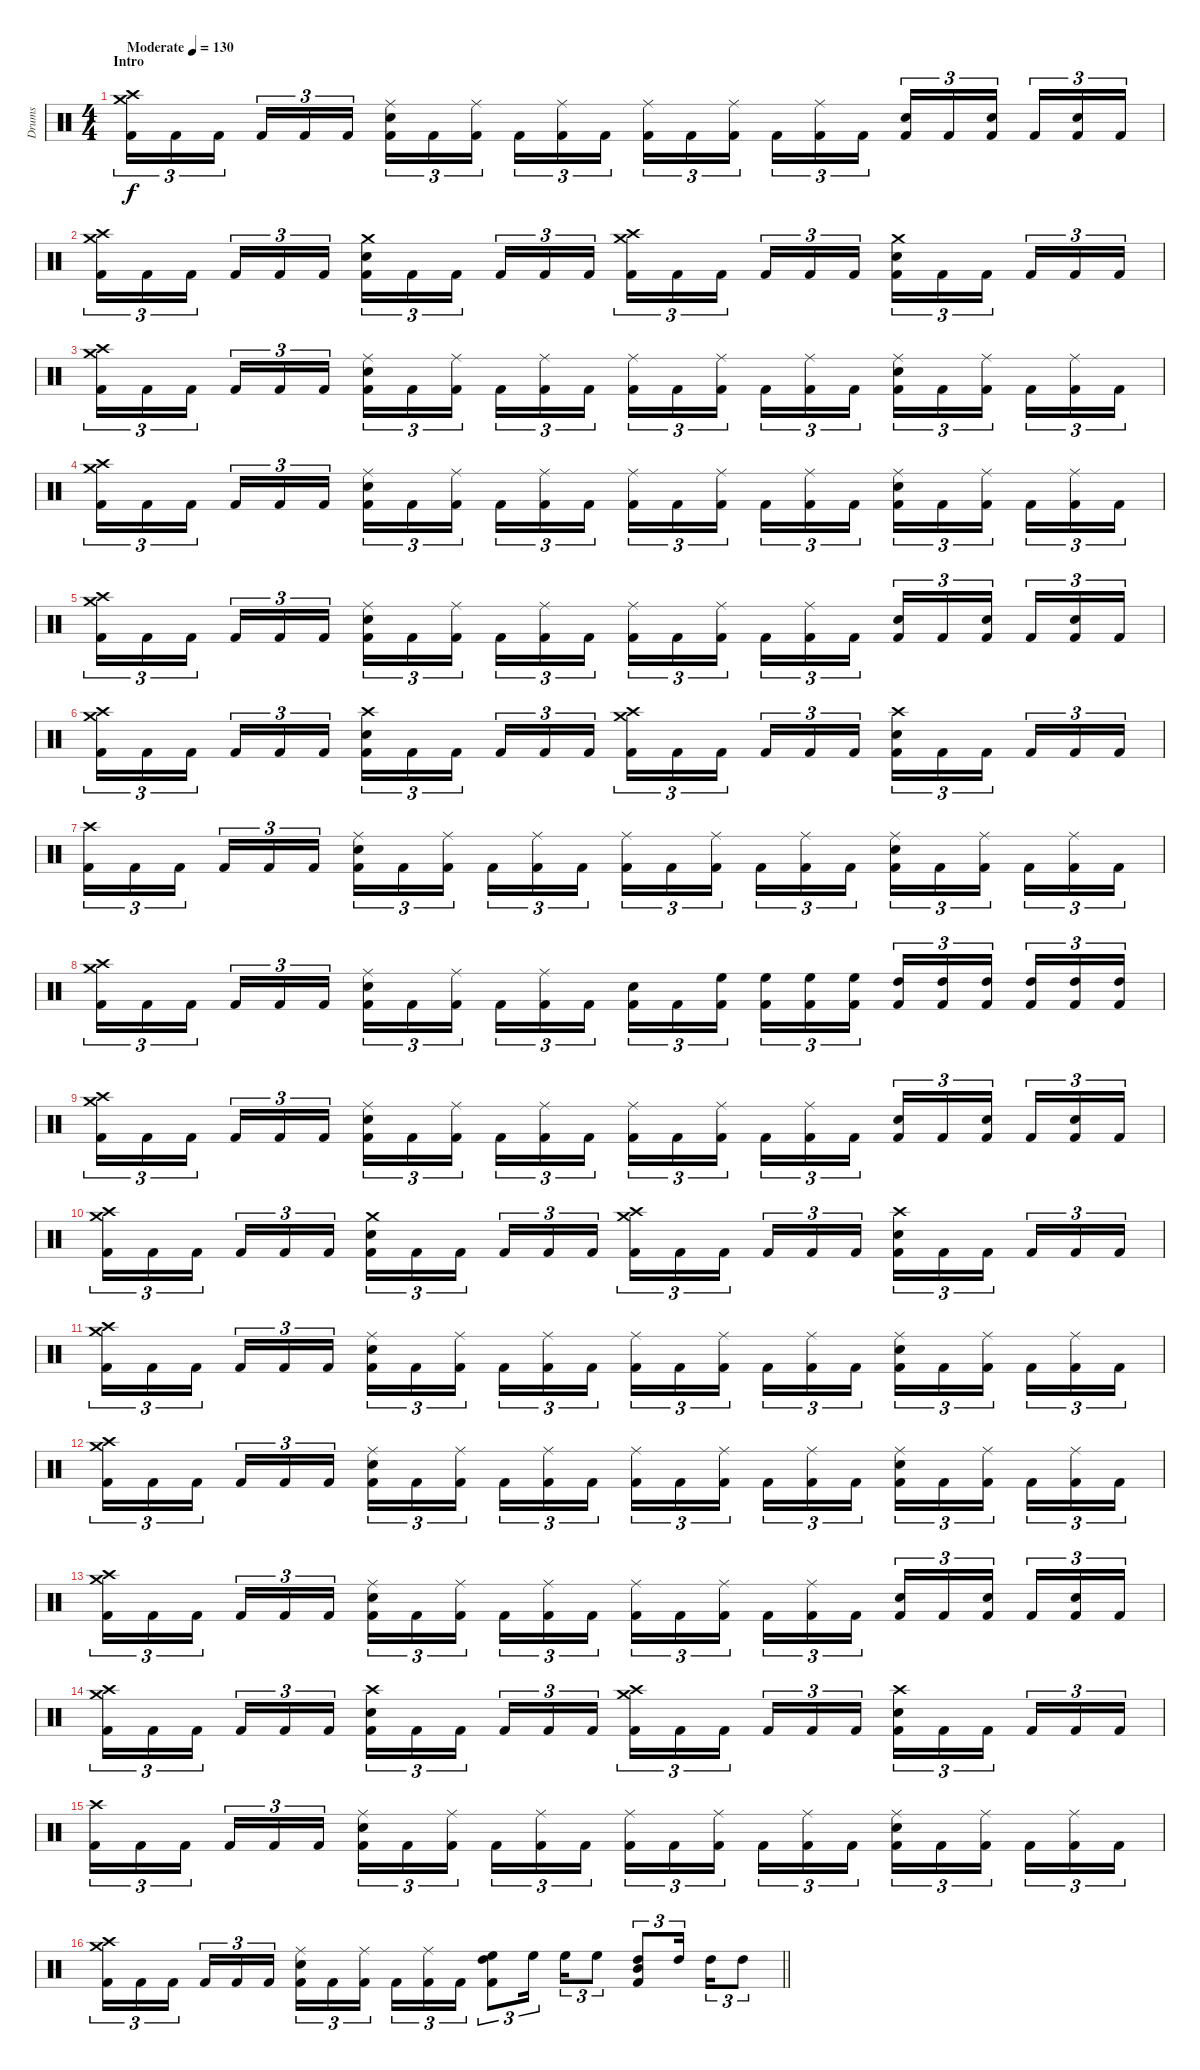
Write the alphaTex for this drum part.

\track ("Drums" "Drums") {instrument percussion}
\staff {score}
\articulation defaults
\ts (4 4)
\section ("" "Intro")
\tempo (130 "Moderate")
\clef neutral
\ks c
("Crash medium (hit)" "Crash high (hit)" "Kick (hit) 2").16{tu (3 2) dy f} "Kick (hit) 2".16{tu (3 2)} "Kick (hit) 2".16{tu (3 2) beam splitsecondary} "Kick (hit) 2".16{tu (3 2)} "Kick (hit) 2".16{tu (3 2)} "Kick (hit) 2".16{tu (3 2)} ("Ride (middle)" "Electric Snare (hit)" "Kick (hit) 2").16{tu (3 2)} "Kick (hit) 2".16{tu (3 2)} ("Ride (middle)" "Kick (hit) 2").16{tu (3 2) beam splitsecondary} "Kick (hit) 2".16{tu (3 2)} ("Ride (middle)" "Kick (hit) 2").16{tu (3 2)} "Kick (hit) 2".16{tu (3 2)} ("Ride (middle)" "Kick (hit) 2").16{tu (3 2)} "Kick (hit) 2".16{tu (3 2)} ("Ride (middle)" "Kick (hit) 2").16{tu (3 2) beam splitsecondary} "Kick (hit) 2".16{tu (3 2)} ("Ride (middle)" "Kick (hit) 2").16{tu (3 2)} "Kick (hit) 2".16{tu (3 2)} ("Electric Snare (hit)" "Kick (hit) 2").16{tu (3 2)} "Kick (hit) 2".16{tu (3 2)} ("Electric Snare (hit)" "Kick (hit) 2").16{tu (3 2) beam splitsecondary} "Kick (hit) 2".16{tu (3 2)} ("Electric Snare (hit)" "Kick (hit) 2").16{tu (3 2)} "Kick (hit) 2".16{tu (3 2)} |
("Crash medium (hit)" "Crash high (hit)" "Kick (hit) 2").16{tu (3 2)} "Kick (hit) 2".16{tu (3 2)} "Kick (hit) 2".16{tu (3 2) beam splitsecondary} "Kick (hit) 2".16{tu (3 2)} "Kick (hit) 2".16{tu (3 2)} "Kick (hit) 2".16{tu (3 2)} ("Crash medium (hit)" "Electric Snare (hit)" "Kick (hit) 2").16{tu (3 2)} "Kick (hit) 2".16{tu (3 2)} "Kick (hit) 2".16{tu (3 2) beam splitsecondary} "Kick (hit) 2".16{tu (3 2)} "Kick (hit) 2".16{tu (3 2)} "Kick (hit) 2".16{tu (3 2)} ("Crash medium (hit)" "Crash high (hit)" "Kick (hit) 2").16{tu (3 2)} "Kick (hit) 2".16{tu (3 2)} "Kick (hit) 2".16{tu (3 2) beam splitsecondary} "Kick (hit) 2".16{tu (3 2)} "Kick (hit) 2".16{tu (3 2)} "Kick (hit) 2".16{tu (3 2)} ("Crash medium (hit)" "Electric Snare (hit)" "Kick (hit) 2").16{tu (3 2)} "Kick (hit) 2".16{tu (3 2)} "Kick (hit) 2".16{tu (3 2) beam splitsecondary} "Kick (hit) 2".16{tu (3 2)} "Kick (hit) 2".16{tu (3 2)} "Kick (hit) 2".16{tu (3 2)} |
("Crash medium (hit)" "Crash high (hit)" "Kick (hit) 2").16{tu (3 2)} "Kick (hit) 2".16{tu (3 2)} "Kick (hit) 2".16{tu (3 2) beam splitsecondary} "Kick (hit) 2".16{tu (3 2)} "Kick (hit) 2".16{tu (3 2)} "Kick (hit) 2".16{tu (3 2)} ("Ride (middle)" "Electric Snare (hit)" "Kick (hit) 2").16{tu (3 2)} "Kick (hit) 2".16{tu (3 2)} ("Ride (middle)" "Kick (hit) 2").16{tu (3 2) beam splitsecondary} "Kick (hit) 2".16{tu (3 2)} ("Ride (middle)" "Kick (hit) 2").16{tu (3 2)} "Kick (hit) 2".16{tu (3 2)} ("Ride (middle)" "Kick (hit) 2").16{tu (3 2)} "Kick (hit) 2".16{tu (3 2)} ("Ride (middle)" "Kick (hit) 2").16{tu (3 2) beam splitsecondary} "Kick (hit) 2".16{tu (3 2)} ("Ride (middle)" "Kick (hit) 2").16{tu (3 2)} "Kick (hit) 2".16{tu (3 2)} ("Ride (middle)" "Electric Snare (hit)" "Kick (hit) 2").16{tu (3 2)} "Kick (hit) 2".16{tu (3 2)} ("Ride (middle)" "Kick (hit) 2").16{tu (3 2) beam splitsecondary} "Kick (hit) 2".16{tu (3 2)} ("Ride (middle)" "Kick (hit) 2").16{tu (3 2)} "Kick (hit) 2".16{tu (3 2)} |
("Crash medium (hit)" "Crash high (hit)" "Kick (hit) 2").16{tu (3 2)} "Kick (hit) 2".16{tu (3 2)} "Kick (hit) 2".16{tu (3 2) beam splitsecondary} "Kick (hit) 2".16{tu (3 2)} "Kick (hit) 2".16{tu (3 2)} "Kick (hit) 2".16{tu (3 2)} ("Ride (middle)" "Electric Snare (hit)" "Kick (hit) 2").16{tu (3 2)} "Kick (hit) 2".16{tu (3 2)} ("Ride (middle)" "Kick (hit) 2").16{tu (3 2) beam splitsecondary} "Kick (hit) 2".16{tu (3 2)} ("Ride (middle)" "Kick (hit) 2").16{tu (3 2)} "Kick (hit) 2".16{tu (3 2)} ("Ride (middle)" "Kick (hit) 2").16{tu (3 2)} "Kick (hit) 2".16{tu (3 2)} ("Ride (middle)" "Kick (hit) 2").16{tu (3 2) beam splitsecondary} "Kick (hit) 2".16{tu (3 2)} ("Ride (middle)" "Kick (hit) 2").16{tu (3 2)} "Kick (hit) 2".16{tu (3 2)} ("Ride (middle)" "Electric Snare (hit)" "Kick (hit) 2").16{tu (3 2)} "Kick (hit) 2".16{tu (3 2)} ("Ride (middle)" "Kick (hit) 2").16{tu (3 2) beam splitsecondary} "Kick (hit) 2".16{tu (3 2)} ("Ride (middle)" "Kick (hit) 2").16{tu (3 2)} "Kick (hit) 2".16{tu (3 2)} |
("Crash medium (hit)" "Crash high (hit)" "Kick (hit) 2").16{tu (3 2)} "Kick (hit) 2".16{tu (3 2)} "Kick (hit) 2".16{tu (3 2) beam splitsecondary} "Kick (hit) 2".16{tu (3 2)} "Kick (hit) 2".16{tu (3 2)} "Kick (hit) 2".16{tu (3 2)} ("Ride (middle)" "Electric Snare (hit)" "Kick (hit) 2").16{tu (3 2)} "Kick (hit) 2".16{tu (3 2)} ("Ride (middle)" "Kick (hit) 2").16{tu (3 2) beam splitsecondary} "Kick (hit) 2".16{tu (3 2)} ("Ride (middle)" "Kick (hit) 2").16{tu (3 2)} "Kick (hit) 2".16{tu (3 2)} ("Ride (middle)" "Kick (hit) 2").16{tu (3 2)} "Kick (hit) 2".16{tu (3 2)} ("Ride (middle)" "Kick (hit) 2").16{tu (3 2) beam splitsecondary} "Kick (hit) 2".16{tu (3 2)} ("Ride (middle)" "Kick (hit) 2").16{tu (3 2)} "Kick (hit) 2".16{tu (3 2)} ("Electric Snare (hit)" "Kick (hit) 2").16{tu (3 2)} "Kick (hit) 2".16{tu (3 2)} ("Electric Snare (hit)" "Kick (hit) 2").16{tu (3 2) beam splitsecondary} "Kick (hit) 2".16{tu (3 2)} ("Electric Snare (hit)" "Kick (hit) 2").16{tu (3 2)} "Kick (hit) 2".16{tu (3 2)} |
("Crash medium (hit)" "Crash high (hit)" "Kick (hit) 2").16{tu (3 2)} "Kick (hit) 2".16{tu (3 2)} "Kick (hit) 2".16{tu (3 2) beam splitsecondary} "Kick (hit) 2".16{tu (3 2)} "Kick (hit) 2".16{tu (3 2)} "Kick (hit) 2".16{tu (3 2)} ("Crash high (hit)" "Electric Snare (hit)" "Kick (hit) 2").16{tu (3 2)} "Kick (hit) 2".16{tu (3 2)} "Kick (hit) 2".16{tu (3 2) beam splitsecondary} "Kick (hit) 2".16{tu (3 2)} "Kick (hit) 2".16{tu (3 2)} "Kick (hit) 2".16{tu (3 2)} ("Crash medium (hit)" "Crash high (hit)" "Kick (hit) 2").16{tu (3 2)} "Kick (hit) 2".16{tu (3 2)} "Kick (hit) 2".16{tu (3 2) beam splitsecondary} "Kick (hit) 2".16{tu (3 2)} "Kick (hit) 2".16{tu (3 2)} "Kick (hit) 2".16{tu (3 2)} ("Crash high (hit)" "Electric Snare (hit)" "Kick (hit) 2").16{tu (3 2)} "Kick (hit) 2".16{tu (3 2)} "Kick (hit) 2".16{tu (3 2) beam splitsecondary} "Kick (hit) 2".16{tu (3 2)} "Kick (hit) 2".16{tu (3 2)} "Kick (hit) 2".16{tu (3 2)} |
("Crash high (hit)" "Kick (hit) 2").16{tu (3 2)} "Kick (hit) 2".16{tu (3 2)} "Kick (hit) 2".16{tu (3 2) beam splitsecondary} "Kick (hit) 2".16{tu (3 2)} "Kick (hit) 2".16{tu (3 2)} "Kick (hit) 2".16{tu (3 2)} ("Ride (middle)" "Electric Snare (hit)" "Kick (hit) 2").16{tu (3 2)} "Kick (hit) 2".16{tu (3 2)} ("Ride (middle)" "Kick (hit) 2").16{tu (3 2) beam splitsecondary} "Kick (hit) 2".16{tu (3 2)} ("Ride (middle)" "Kick (hit) 2").16{tu (3 2)} "Kick (hit) 2".16{tu (3 2)} ("Ride (middle)" "Kick (hit) 2").16{tu (3 2)} "Kick (hit) 2".16{tu (3 2)} ("Ride (middle)" "Kick (hit) 2").16{tu (3 2) beam splitsecondary} "Kick (hit) 2".16{tu (3 2)} ("Ride (middle)" "Kick (hit) 2").16{tu (3 2)} "Kick (hit) 2".16{tu (3 2)} ("Ride (middle)" "Electric Snare (hit)" "Kick (hit) 2").16{tu (3 2)} "Kick (hit) 2".16{tu (3 2)} ("Ride (middle)" "Kick (hit) 2").16{tu (3 2) beam splitsecondary} "Kick (hit) 2".16{tu (3 2)} ("Ride (middle)" "Kick (hit) 2").16{tu (3 2)} "Kick (hit) 2".16{tu (3 2)} |
("Crash medium (hit)" "Crash high (hit)" "Kick (hit) 2").16{tu (3 2)} "Kick (hit) 2".16{tu (3 2)} "Kick (hit) 2".16{tu (3 2) beam splitsecondary} "Kick (hit) 2".16{tu (3 2)} "Kick (hit) 2".16{tu (3 2)} "Kick (hit) 2".16{tu (3 2)} ("Ride (middle)" "Electric Snare (hit)" "Kick (hit) 2").16{tu (3 2)} "Kick (hit) 2".16{tu (3 2)} ("Ride (middle)" "Kick (hit) 2").16{tu (3 2) beam splitsecondary} "Kick (hit) 2".16{tu (3 2)} ("Ride (middle)" "Kick (hit) 2").16{tu (3 2)} "Kick (hit) 2".16{tu (3 2)} ("Electric Snare (hit)" "Kick (hit) 2").16{tu (3 2)} "Kick (hit) 2".16{tu (3 2)} ("High Floor Tom (hit)" "Kick (hit) 2").16{tu (3 2) beam splitsecondary} ("High Floor Tom (hit)" "Kick (hit) 2").16{tu (3 2)} ("High Floor Tom (hit)" "Kick (hit) 2").16{tu (3 2)} ("High Floor Tom (hit)" "Kick (hit) 2").16{tu (3 2)} ("High Tom (hit)" "Kick (hit) 2").16{tu (3 2)} ("High Tom (hit)" "Kick (hit) 2").16{tu (3 2)} ("High Tom (hit)" "Kick (hit) 2").16{tu (3 2) beam splitsecondary} ("High Tom (hit)" "Kick (hit) 2").16{tu (3 2)} ("High Tom (hit)" "Kick (hit) 2").16{tu (3 2)} ("High Tom (hit)" "Kick (hit) 2").16{tu (3 2)} |
("Crash medium (hit)" "Crash high (hit)" "Kick (hit) 2").16{tu (3 2)} "Kick (hit) 2".16{tu (3 2)} "Kick (hit) 2".16{tu (3 2) beam splitsecondary} "Kick (hit) 2".16{tu (3 2)} "Kick (hit) 2".16{tu (3 2)} "Kick (hit) 2".16{tu (3 2)} ("Ride (middle)" "Electric Snare (hit)" "Kick (hit) 2").16{tu (3 2)} "Kick (hit) 2".16{tu (3 2)} ("Ride (middle)" "Kick (hit) 2").16{tu (3 2) beam splitsecondary} "Kick (hit) 2".16{tu (3 2)} ("Ride (middle)" "Kick (hit) 2").16{tu (3 2)} "Kick (hit) 2".16{tu (3 2)} ("Ride (middle)" "Kick (hit) 2").16{tu (3 2)} "Kick (hit) 2".16{tu (3 2)} ("Ride (middle)" "Kick (hit) 2").16{tu (3 2) beam splitsecondary} "Kick (hit) 2".16{tu (3 2)} ("Ride (middle)" "Kick (hit) 2").16{tu (3 2)} "Kick (hit) 2".16{tu (3 2)} ("Electric Snare (hit)" "Kick (hit) 2").16{tu (3 2)} "Kick (hit) 2".16{tu (3 2)} ("Electric Snare (hit)" "Kick (hit) 2").16{tu (3 2) beam splitsecondary} "Kick (hit) 2".16{tu (3 2)} ("Electric Snare (hit)" "Kick (hit) 2").16{tu (3 2)} "Kick (hit) 2".16{tu (3 2)} |
("Crash medium (hit)" "Crash high (hit)" "Kick (hit) 2").16{tu (3 2)} "Kick (hit) 2".16{tu (3 2)} "Kick (hit) 2".16{tu (3 2) beam splitsecondary} "Kick (hit) 2".16{tu (3 2)} "Kick (hit) 2".16{tu (3 2)} "Kick (hit) 2".16{tu (3 2)} ("Crash medium (hit)" "Electric Snare (hit)" "Kick (hit) 2").16{tu (3 2)} "Kick (hit) 2".16{tu (3 2)} "Kick (hit) 2".16{tu (3 2) beam splitsecondary} "Kick (hit) 2".16{tu (3 2)} "Kick (hit) 2".16{tu (3 2)} "Kick (hit) 2".16{tu (3 2)} ("Crash medium (hit)" "Crash high (hit)" "Kick (hit) 2").16{tu (3 2)} "Kick (hit) 2".16{tu (3 2)} "Kick (hit) 2".16{tu (3 2) beam splitsecondary} "Kick (hit) 2".16{tu (3 2)} "Kick (hit) 2".16{tu (3 2)} "Kick (hit) 2".16{tu (3 2)} ("Crash high (hit)" "Electric Snare (hit)" "Kick (hit) 2").16{tu (3 2)} "Kick (hit) 2".16{tu (3 2)} "Kick (hit) 2".16{tu (3 2) beam splitsecondary} "Kick (hit) 2".16{tu (3 2)} "Kick (hit) 2".16{tu (3 2)} "Kick (hit) 2".16{tu (3 2)} |
("Crash medium (hit)" "Crash high (hit)" "Kick (hit) 2").16{tu (3 2)} "Kick (hit) 2".16{tu (3 2)} "Kick (hit) 2".16{tu (3 2) beam splitsecondary} "Kick (hit) 2".16{tu (3 2)} "Kick (hit) 2".16{tu (3 2)} "Kick (hit) 2".16{tu (3 2)} ("Ride (middle)" "Electric Snare (hit)" "Kick (hit) 2").16{tu (3 2)} "Kick (hit) 2".16{tu (3 2)} ("Ride (middle)" "Kick (hit) 2").16{tu (3 2) beam splitsecondary} "Kick (hit) 2".16{tu (3 2)} ("Ride (middle)" "Kick (hit) 2").16{tu (3 2)} "Kick (hit) 2".16{tu (3 2)} ("Ride (middle)" "Kick (hit) 2").16{tu (3 2)} "Kick (hit) 2".16{tu (3 2)} ("Ride (middle)" "Kick (hit) 2").16{tu (3 2) beam splitsecondary} "Kick (hit) 2".16{tu (3 2)} ("Ride (middle)" "Kick (hit) 2").16{tu (3 2)} "Kick (hit) 2".16{tu (3 2)} ("Ride (middle)" "Electric Snare (hit)" "Kick (hit) 2").16{tu (3 2)} "Kick (hit) 2".16{tu (3 2)} ("Ride (middle)" "Kick (hit) 2").16{tu (3 2) beam splitsecondary} "Kick (hit) 2".16{tu (3 2)} ("Ride (middle)" "Kick (hit) 2").16{tu (3 2)} "Kick (hit) 2".16{tu (3 2)} |
("Crash medium (hit)" "Crash high (hit)" "Kick (hit) 2").16{tu (3 2)} "Kick (hit) 2".16{tu (3 2)} "Kick (hit) 2".16{tu (3 2) beam splitsecondary} "Kick (hit) 2".16{tu (3 2)} "Kick (hit) 2".16{tu (3 2)} "Kick (hit) 2".16{tu (3 2)} ("Ride (middle)" "Electric Snare (hit)" "Kick (hit) 2").16{tu (3 2)} "Kick (hit) 2".16{tu (3 2)} ("Ride (middle)" "Kick (hit) 2").16{tu (3 2) beam splitsecondary} "Kick (hit) 2".16{tu (3 2)} ("Ride (middle)" "Kick (hit) 2").16{tu (3 2)} "Kick (hit) 2".16{tu (3 2)} ("Ride (middle)" "Kick (hit) 2").16{tu (3 2)} "Kick (hit) 2".16{tu (3 2)} ("Ride (middle)" "Kick (hit) 2").16{tu (3 2) beam splitsecondary} "Kick (hit) 2".16{tu (3 2)} ("Ride (middle)" "Kick (hit) 2").16{tu (3 2)} "Kick (hit) 2".16{tu (3 2)} ("Ride (middle)" "Electric Snare (hit)" "Kick (hit) 2").16{tu (3 2)} "Kick (hit) 2".16{tu (3 2)} ("Ride (middle)" "Kick (hit) 2").16{tu (3 2) beam splitsecondary} "Kick (hit) 2".16{tu (3 2)} ("Ride (middle)" "Kick (hit) 2").16{tu (3 2)} "Kick (hit) 2".16{tu (3 2)} |
("Crash medium (hit)" "Crash high (hit)" "Kick (hit) 2").16{tu (3 2)} "Kick (hit) 2".16{tu (3 2)} "Kick (hit) 2".16{tu (3 2) beam splitsecondary} "Kick (hit) 2".16{tu (3 2)} "Kick (hit) 2".16{tu (3 2)} "Kick (hit) 2".16{tu (3 2)} ("Ride (middle)" "Electric Snare (hit)" "Kick (hit) 2").16{tu (3 2)} "Kick (hit) 2".16{tu (3 2)} ("Ride (middle)" "Kick (hit) 2").16{tu (3 2) beam splitsecondary} "Kick (hit) 2".16{tu (3 2)} ("Ride (middle)" "Kick (hit) 2").16{tu (3 2)} "Kick (hit) 2".16{tu (3 2)} ("Ride (middle)" "Kick (hit) 2").16{tu (3 2)} "Kick (hit) 2".16{tu (3 2)} ("Ride (middle)" "Kick (hit) 2").16{tu (3 2) beam splitsecondary} "Kick (hit) 2".16{tu (3 2)} ("Ride (middle)" "Kick (hit) 2").16{tu (3 2)} "Kick (hit) 2".16{tu (3 2)} ("Electric Snare (hit)" "Kick (hit) 2").16{tu (3 2)} "Kick (hit) 2".16{tu (3 2)} ("Electric Snare (hit)" "Kick (hit) 2").16{tu (3 2) beam splitsecondary} "Kick (hit) 2".16{tu (3 2)} ("Electric Snare (hit)" "Kick (hit) 2").16{tu (3 2)} "Kick (hit) 2".16{tu (3 2)} |
("Crash medium (hit)" "Crash high (hit)" "Kick (hit) 2").16{tu (3 2)} "Kick (hit) 2".16{tu (3 2)} "Kick (hit) 2".16{tu (3 2) beam splitsecondary} "Kick (hit) 2".16{tu (3 2)} "Kick (hit) 2".16{tu (3 2)} "Kick (hit) 2".16{tu (3 2)} ("Crash high (hit)" "Electric Snare (hit)" "Kick (hit) 2").16{tu (3 2)} "Kick (hit) 2".16{tu (3 2)} "Kick (hit) 2".16{tu (3 2) beam splitsecondary} "Kick (hit) 2".16{tu (3 2)} "Kick (hit) 2".16{tu (3 2)} "Kick (hit) 2".16{tu (3 2)} ("Crash medium (hit)" "Crash high (hit)" "Kick (hit) 2").16{tu (3 2)} "Kick (hit) 2".16{tu (3 2)} "Kick (hit) 2".16{tu (3 2) beam splitsecondary} "Kick (hit) 2".16{tu (3 2)} "Kick (hit) 2".16{tu (3 2)} "Kick (hit) 2".16{tu (3 2)} ("Crash high (hit)" "Electric Snare (hit)" "Kick (hit) 2").16{tu (3 2)} "Kick (hit) 2".16{tu (3 2)} "Kick (hit) 2".16{tu (3 2) beam splitsecondary} "Kick (hit) 2".16{tu (3 2)} "Kick (hit) 2".16{tu (3 2)} "Kick (hit) 2".16{tu (3 2)} |
("Crash high (hit)" "Kick (hit) 2").16{tu (3 2)} "Kick (hit) 2".16{tu (3 2)} "Kick (hit) 2".16{tu (3 2) beam splitsecondary} "Kick (hit) 2".16{tu (3 2)} "Kick (hit) 2".16{tu (3 2)} "Kick (hit) 2".16{tu (3 2)} ("Ride (middle)" "Electric Snare (hit)" "Kick (hit) 2").16{tu (3 2)} "Kick (hit) 2".16{tu (3 2)} ("Ride (middle)" "Kick (hit) 2").16{tu (3 2) beam splitsecondary} "Kick (hit) 2".16{tu (3 2)} ("Ride (middle)" "Kick (hit) 2").16{tu (3 2)} "Kick (hit) 2".16{tu (3 2)} ("Ride (middle)" "Kick (hit) 2").16{tu (3 2)} "Kick (hit) 2".16{tu (3 2)} ("Ride (middle)" "Kick (hit) 2").16{tu (3 2) beam splitsecondary} "Kick (hit) 2".16{tu (3 2)} ("Ride (middle)" "Kick (hit) 2").16{tu (3 2)} "Kick (hit) 2".16{tu (3 2)} ("Ride (middle)" "Electric Snare (hit)" "Kick (hit) 2").16{tu (3 2)} "Kick (hit) 2".16{tu (3 2)} ("Ride (middle)" "Kick (hit) 2").16{tu (3 2) beam splitsecondary} "Kick (hit) 2".16{tu (3 2)} ("Ride (middle)" "Kick (hit) 2").16{tu (3 2)} "Kick (hit) 2".16{tu (3 2)} |
\barLineRight lightlight
("Crash medium (hit)" "Crash high (hit)" "Kick (hit) 2").16{tu (3 2)} "Kick (hit) 2".16{tu (3 2)} "Kick (hit) 2".16{tu (3 2) beam splitsecondary} "Kick (hit) 2".16{tu (3 2)} "Kick (hit) 2".16{tu (3 2)} "Kick (hit) 2".16{tu (3 2)} ("Ride (middle)" "Electric Snare (hit)" "Kick (hit) 2").16{tu (3 2)} "Kick (hit) 2".16{tu (3 2)} ("Ride (middle)" "Kick (hit) 2").16{tu (3 2) beam splitsecondary} "Kick (hit) 2".16{tu (3 2)} ("Ride (middle)" "Kick (hit) 2").16{tu (3 2)} "Kick (hit) 2".16{tu (3 2)} ("High Floor Tom (hit)" "High Tom (hit)" "Kick (hit) 2").8{tu (3 2)} "High Floor Tom (hit)".16{tu (3 2) beam splitsecondary} "High Floor Tom (hit)".16{tu (3 2)} "High Floor Tom (hit)".8{tu (3 2)} ("High Tom (hit)" "Mid Tom (hit)" "Kick (hit) 2").8{tu (3 2)} "High Tom (hit)".16{tu (3 2) beam splitsecondary} "High Tom (hit)".16{tu (3 2)} "High Tom (hit)".8{tu (3 2)}
